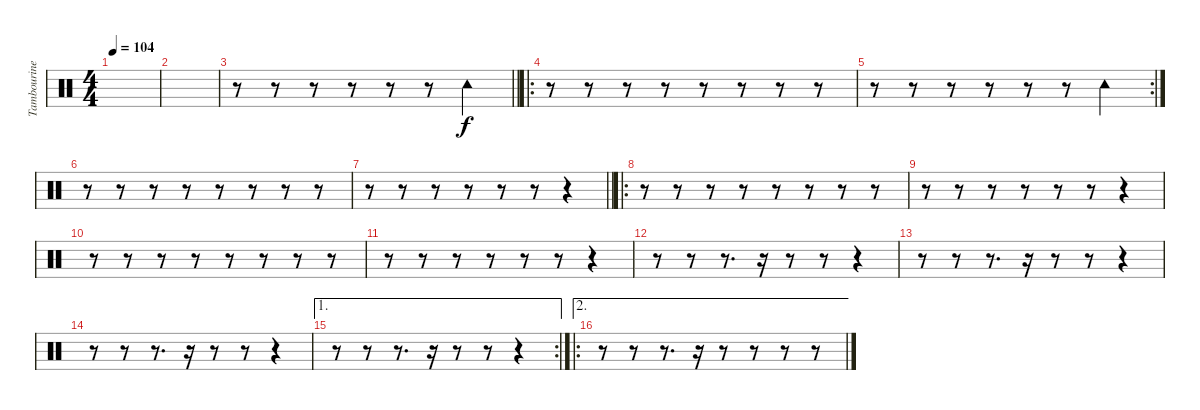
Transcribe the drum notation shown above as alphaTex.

\track ("Tambourine" "Tambourine") {instrument percussion}
\staff {score}
\articulation defaults
\ts (4 4)
\tempo 104
\clef neutral
\ks c
|
|
\barLineRight lightlight
r.8 r.8 r.8 r.8 r.8 r.8 "Tambourine (hit)".4 |
\ro
r.8 r.8 r.8 r.8 r.8 r.8 r.8 r.8 |
\rc 2
r.8 r.8 r.8 r.8 r.8 r.8 "Tambourine (hit)".4 |
r.8 r.8 r.8 r.8 r.8 r.8 r.8 r.8 |
\barLineRight lightlight
r.8 r.8 r.8 r.8 r.8 r.8 r.4 |
\ro
r.8 r.8 r.8 r.8 r.8 r.8 r.8 r.8 |
r.8 r.8 r.8 r.8 r.8 r.8 r.4 |
r.8 r.8 r.8 r.8 r.8 r.8 r.8 r.8 |
r.8 r.8 r.8 r.8 r.8 r.8 r.4 |
r.8 r.8 r.8{d} r.16 r.8 r.8 r.4 |
r.8 r.8 r.8{d} r.16 r.8 r.8 r.4 |
r.8 r.8 r.8{d} r.16 r.8 r.8 r.4 |
\ae 1
\rc 2
r.8 r.8 r.8{d} r.16 r.8 r.8 r.4 |
\ae 2
\ro
r.8 r.8 r.8{d} r.16 r.8 r.8 r.8 r.8
